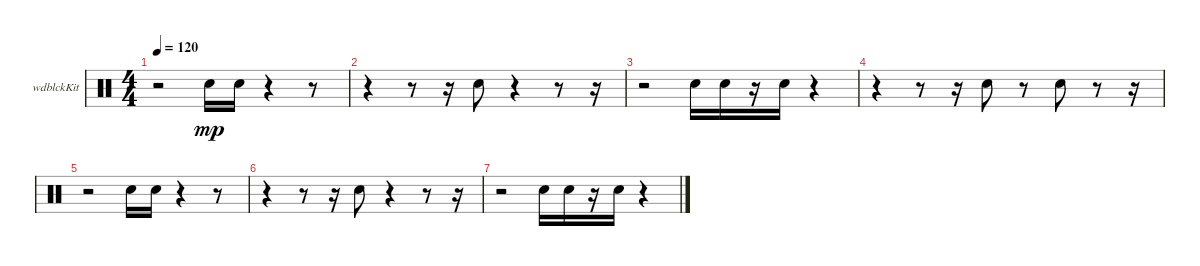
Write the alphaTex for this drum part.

\bracketExtendMode groupsimilarinstruments
\firstSystemTrackNameOrientation horizontal
\otherSystemsTrackNameOrientation horizontal
\track ("Woodblock" "wdblckKit") {instrument percussion}
\staff {score}
\articulation defaults
\ts (4 4)
\tempo 120
\clef neutral
\ks c
r.2{dy mp} "Snare (hit) 2".16 "Snare (hit) 2".16 r.4 r.8 |
r.4 r.8 r.16 "Snare (hit) 2".8 r.4 r.8 r.16 |
r.2 "Snare (hit) 2".16 "Snare (hit) 2".16 r.16 "Snare (hit) 2".16 r.4 |
r.4 r.8 r.16 "Snare (hit) 2".8 r.8 "Snare (hit) 2".8 r.8 r.16 |
r.2 "Snare (hit) 2".16 "Snare (hit) 2".16 r.4 r.8 |
r.4 r.8 r.16 "Snare (hit) 2".8 r.4 r.8 r.16 |
r.2 "Snare (hit) 2".16 "Snare (hit) 2".16 r.16 "Snare (hit) 2".16 r.4
